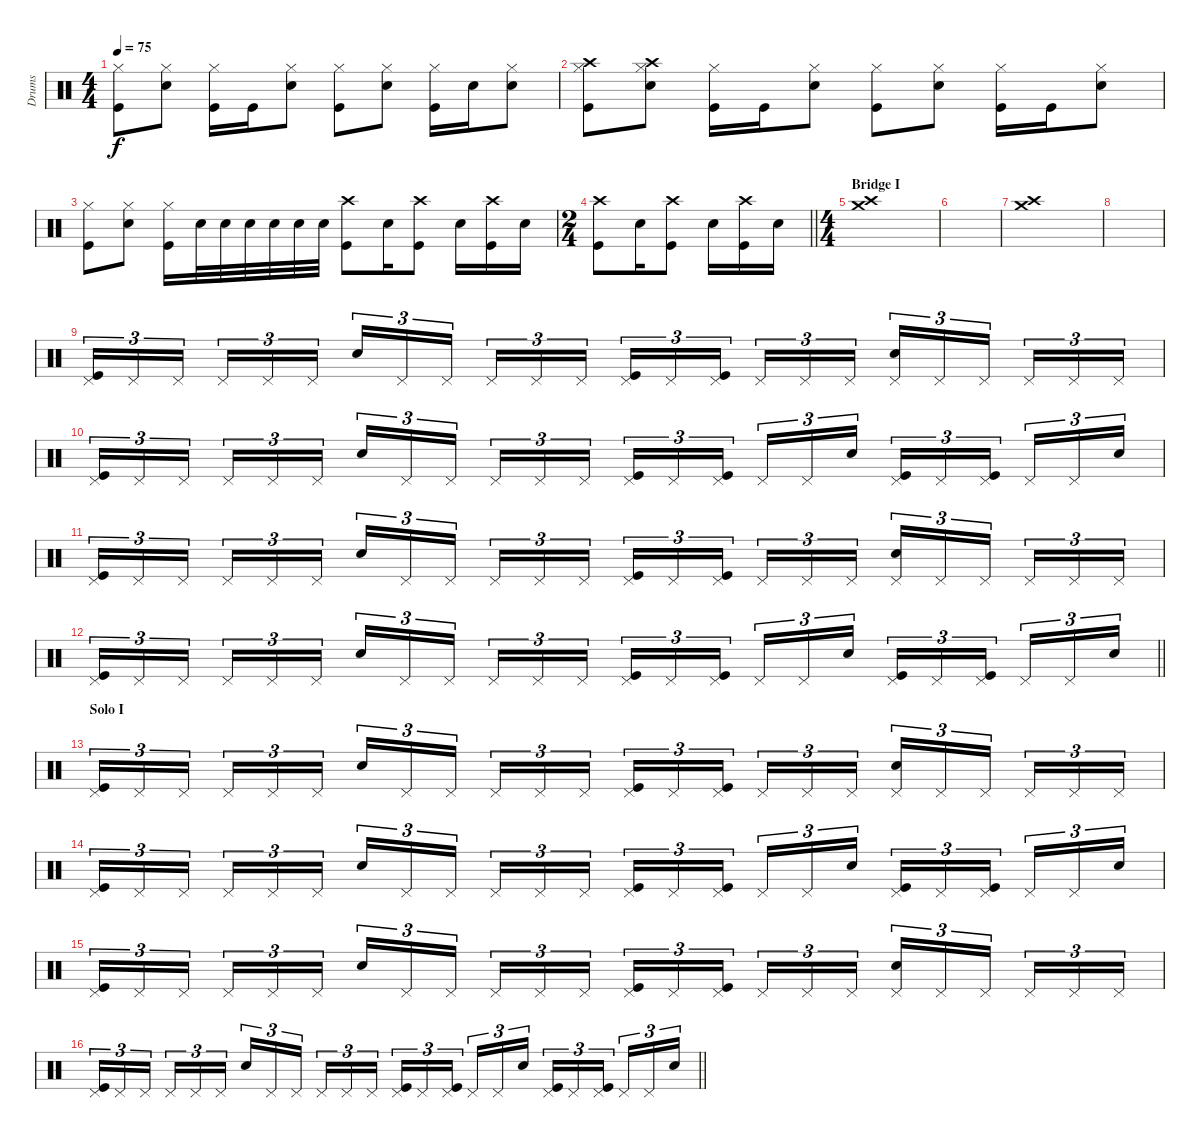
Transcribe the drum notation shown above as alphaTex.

\track ("Drums" "Drums") {instrument percussion}
\staff {score}
\articulation defaults
\ts (4 4)
\tempo 75
\clef neutral
\ks c
("Hi-Hat (closed)" "Kick (hit)").8{dy f} ("Hi-Hat (closed)" "Snare (hit) 2").8 ("Hi-Hat (closed)" "Kick (hit)").16 "Kick (hit)".16 ("Hi-Hat (closed)" "Snare (hit) 2").8 ("Hi-Hat (closed)" "Kick (hit)").8 ("Hi-Hat (closed)" "Snare (hit) 2").8 ("Hi-Hat (closed)" "Kick (hit)").16 "Snare (hit) 2".16 ("Hi-Hat (closed)" "Snare (hit) 2").8 |
("Crash high (hit)" "Hi-Hat (closed)" "Kick (hit)").8 ("Crash high (hit)" "Hi-Hat (closed)" "Snare (hit) 2").8 ("Hi-Hat (closed)" "Kick (hit)").16 "Kick (hit)".16 ("Hi-Hat (closed)" "Snare (hit) 2").8 ("Hi-Hat (closed)" "Kick (hit)").8 ("Hi-Hat (closed)" "Snare (hit) 2").8 ("Hi-Hat (closed)" "Kick (hit)").16 "Kick (hit)".16 ("Hi-Hat (closed)" "Snare (hit) 2").8 |
("Hi-Hat (closed)" "Kick (hit)").8 ("Hi-Hat (closed)" "Snare (hit) 2").8 ("Hi-Hat (closed)" "Kick (hit)").16 "Snare (hit) 2".32 "Snare (hit) 2".32 "Snare (hit) 2".32 "Snare (hit) 2".32 "Snare (hit) 2".32 "Snare (hit) 2".32 ("Crash high (hit)" "Kick (hit)").8 "Snare (hit) 2".16 ("Crash high (hit)" "Kick (hit)").8 "Snare (hit) 2".16 ("Crash high (hit)" "Kick (hit)").16 "Snare (hit) 2".16 |
\ts (2 4)
\barLineRight lightlight
("Crash high (hit)" "Kick (hit)").8 "Snare (hit) 2".16 ("Crash high (hit)" "Kick (hit)").8 "Snare (hit) 2".16 ("Crash high (hit)" "Kick (hit)").16 "Snare (hit) 2".16 |
\ts (4 4)
\section ("" "Bridge I")
("Crash high (hit)" "Crash medium (hit)").1 |
|
("Crash high (hit)" "Crash medium (hit)").1 |
|
("Pedal Hi-Hat (hit)" "Kick (hit)").16{tu (3 2)} "Pedal Hi-Hat (hit)".16{tu (3 2)} "Pedal Hi-Hat (hit)".16{tu (3 2) beam splitsecondary} "Pedal Hi-Hat (hit)".16{tu (3 2)} "Pedal Hi-Hat (hit)".16{tu (3 2)} "Pedal Hi-Hat (hit)".16{tu (3 2)} "Snare (hit) 2".16{tu (3 2)} "Pedal Hi-Hat (hit)".16{tu (3 2)} "Pedal Hi-Hat (hit)".16{tu (3 2) beam splitsecondary} "Pedal Hi-Hat (hit)".16{tu (3 2)} "Pedal Hi-Hat (hit)".16{tu (3 2)} "Pedal Hi-Hat (hit)".16{tu (3 2)} ("Pedal Hi-Hat (hit)" "Kick (hit)").16{tu (3 2)} "Pedal Hi-Hat (hit)".16{tu (3 2)} ("Pedal Hi-Hat (hit)" "Kick (hit)").16{tu (3 2) beam splitsecondary} "Pedal Hi-Hat (hit)".16{tu (3 2)} "Pedal Hi-Hat (hit)".16{tu (3 2)} "Pedal Hi-Hat (hit)".16{tu (3 2)} ("Pedal Hi-Hat (hit)" "Snare (hit) 2").16{tu (3 2)} "Pedal Hi-Hat (hit)".16{tu (3 2)} "Pedal Hi-Hat (hit)".16{tu (3 2) beam splitsecondary} "Pedal Hi-Hat (hit)".16{tu (3 2)} "Pedal Hi-Hat (hit)".16{tu (3 2)} "Pedal Hi-Hat (hit)".16{tu (3 2)} |
("Pedal Hi-Hat (hit)" "Kick (hit)").16{tu (3 2)} "Pedal Hi-Hat (hit)".16{tu (3 2)} "Pedal Hi-Hat (hit)".16{tu (3 2) beam splitsecondary} "Pedal Hi-Hat (hit)".16{tu (3 2)} "Pedal Hi-Hat (hit)".16{tu (3 2)} "Pedal Hi-Hat (hit)".16{tu (3 2)} "Snare (hit) 2".16{tu (3 2)} "Pedal Hi-Hat (hit)".16{tu (3 2)} "Pedal Hi-Hat (hit)".16{tu (3 2) beam splitsecondary} "Pedal Hi-Hat (hit)".16{tu (3 2)} "Pedal Hi-Hat (hit)".16{tu (3 2)} "Pedal Hi-Hat (hit)".16{tu (3 2)} ("Pedal Hi-Hat (hit)" "Kick (hit)").16{tu (3 2)} "Pedal Hi-Hat (hit)".16{tu (3 2)} ("Pedal Hi-Hat (hit)" "Kick (hit)").16{tu (3 2) beam splitsecondary} "Pedal Hi-Hat (hit)".16{tu (3 2)} "Pedal Hi-Hat (hit)".16{tu (3 2)} "Snare (hit) 2".16{tu (3 2)} ("Pedal Hi-Hat (hit)" "Kick (hit)").16{tu (3 2)} "Pedal Hi-Hat (hit)".16{tu (3 2)} ("Pedal Hi-Hat (hit)" "Kick (hit)").16{tu (3 2) beam splitsecondary} "Pedal Hi-Hat (hit)".16{tu (3 2)} "Pedal Hi-Hat (hit)".16{tu (3 2)} "Snare (hit) 2".16{tu (3 2)} |
("Pedal Hi-Hat (hit)" "Kick (hit)").16{tu (3 2)} "Pedal Hi-Hat (hit)".16{tu (3 2)} "Pedal Hi-Hat (hit)".16{tu (3 2) beam splitsecondary} "Pedal Hi-Hat (hit)".16{tu (3 2)} "Pedal Hi-Hat (hit)".16{tu (3 2)} "Pedal Hi-Hat (hit)".16{tu (3 2)} "Snare (hit) 2".16{tu (3 2)} "Pedal Hi-Hat (hit)".16{tu (3 2)} "Pedal Hi-Hat (hit)".16{tu (3 2) beam splitsecondary} "Pedal Hi-Hat (hit)".16{tu (3 2)} "Pedal Hi-Hat (hit)".16{tu (3 2)} "Pedal Hi-Hat (hit)".16{tu (3 2)} ("Pedal Hi-Hat (hit)" "Kick (hit)").16{tu (3 2)} "Pedal Hi-Hat (hit)".16{tu (3 2)} ("Pedal Hi-Hat (hit)" "Kick (hit)").16{tu (3 2) beam splitsecondary} "Pedal Hi-Hat (hit)".16{tu (3 2)} "Pedal Hi-Hat (hit)".16{tu (3 2)} "Pedal Hi-Hat (hit)".16{tu (3 2)} ("Pedal Hi-Hat (hit)" "Snare (hit) 2").16{tu (3 2)} "Pedal Hi-Hat (hit)".16{tu (3 2)} "Pedal Hi-Hat (hit)".16{tu (3 2) beam splitsecondary} "Pedal Hi-Hat (hit)".16{tu (3 2)} "Pedal Hi-Hat (hit)".16{tu (3 2)} "Pedal Hi-Hat (hit)".16{tu (3 2)} |
\barLineRight lightlight
("Pedal Hi-Hat (hit)" "Kick (hit)").16{tu (3 2)} "Pedal Hi-Hat (hit)".16{tu (3 2)} "Pedal Hi-Hat (hit)".16{tu (3 2) beam splitsecondary} "Pedal Hi-Hat (hit)".16{tu (3 2)} "Pedal Hi-Hat (hit)".16{tu (3 2)} "Pedal Hi-Hat (hit)".16{tu (3 2)} "Snare (hit) 2".16{tu (3 2)} "Pedal Hi-Hat (hit)".16{tu (3 2)} "Pedal Hi-Hat (hit)".16{tu (3 2) beam splitsecondary} "Pedal Hi-Hat (hit)".16{tu (3 2)} "Pedal Hi-Hat (hit)".16{tu (3 2)} "Pedal Hi-Hat (hit)".16{tu (3 2)} ("Pedal Hi-Hat (hit)" "Kick (hit)").16{tu (3 2)} "Pedal Hi-Hat (hit)".16{tu (3 2)} ("Pedal Hi-Hat (hit)" "Kick (hit)").16{tu (3 2) beam splitsecondary} "Pedal Hi-Hat (hit)".16{tu (3 2)} "Pedal Hi-Hat (hit)".16{tu (3 2)} "Snare (hit) 2".16{tu (3 2)} ("Pedal Hi-Hat (hit)" "Kick (hit)").16{tu (3 2)} "Pedal Hi-Hat (hit)".16{tu (3 2)} ("Pedal Hi-Hat (hit)" "Kick (hit)").16{tu (3 2) beam splitsecondary} "Pedal Hi-Hat (hit)".16{tu (3 2)} "Pedal Hi-Hat (hit)".16{tu (3 2)} "Snare (hit) 2".16{tu (3 2)} |
\section ("" "Solo I")
("Pedal Hi-Hat (hit)" "Kick (hit)").16{tu (3 2)} "Pedal Hi-Hat (hit)".16{tu (3 2)} "Pedal Hi-Hat (hit)".16{tu (3 2) beam splitsecondary} "Pedal Hi-Hat (hit)".16{tu (3 2)} "Pedal Hi-Hat (hit)".16{tu (3 2)} "Pedal Hi-Hat (hit)".16{tu (3 2)} "Snare (hit) 2".16{tu (3 2)} "Pedal Hi-Hat (hit)".16{tu (3 2)} "Pedal Hi-Hat (hit)".16{tu (3 2) beam splitsecondary} "Pedal Hi-Hat (hit)".16{tu (3 2)} "Pedal Hi-Hat (hit)".16{tu (3 2)} "Pedal Hi-Hat (hit)".16{tu (3 2)} ("Pedal Hi-Hat (hit)" "Kick (hit)").16{tu (3 2)} "Pedal Hi-Hat (hit)".16{tu (3 2)} ("Pedal Hi-Hat (hit)" "Kick (hit)").16{tu (3 2) beam splitsecondary} "Pedal Hi-Hat (hit)".16{tu (3 2)} "Pedal Hi-Hat (hit)".16{tu (3 2)} "Pedal Hi-Hat (hit)".16{tu (3 2)} ("Pedal Hi-Hat (hit)" "Snare (hit) 2").16{tu (3 2)} "Pedal Hi-Hat (hit)".16{tu (3 2)} "Pedal Hi-Hat (hit)".16{tu (3 2) beam splitsecondary} "Pedal Hi-Hat (hit)".16{tu (3 2)} "Pedal Hi-Hat (hit)".16{tu (3 2)} "Pedal Hi-Hat (hit)".16{tu (3 2)} |
("Pedal Hi-Hat (hit)" "Kick (hit)").16{tu (3 2)} "Pedal Hi-Hat (hit)".16{tu (3 2)} "Pedal Hi-Hat (hit)".16{tu (3 2) beam splitsecondary} "Pedal Hi-Hat (hit)".16{tu (3 2)} "Pedal Hi-Hat (hit)".16{tu (3 2)} "Pedal Hi-Hat (hit)".16{tu (3 2)} "Snare (hit) 2".16{tu (3 2)} "Pedal Hi-Hat (hit)".16{tu (3 2)} "Pedal Hi-Hat (hit)".16{tu (3 2) beam splitsecondary} "Pedal Hi-Hat (hit)".16{tu (3 2)} "Pedal Hi-Hat (hit)".16{tu (3 2)} "Pedal Hi-Hat (hit)".16{tu (3 2)} ("Pedal Hi-Hat (hit)" "Kick (hit)").16{tu (3 2)} "Pedal Hi-Hat (hit)".16{tu (3 2)} ("Pedal Hi-Hat (hit)" "Kick (hit)").16{tu (3 2) beam splitsecondary} "Pedal Hi-Hat (hit)".16{tu (3 2)} "Pedal Hi-Hat (hit)".16{tu (3 2)} "Snare (hit) 2".16{tu (3 2)} ("Pedal Hi-Hat (hit)" "Kick (hit)").16{tu (3 2)} "Pedal Hi-Hat (hit)".16{tu (3 2)} ("Pedal Hi-Hat (hit)" "Kick (hit)").16{tu (3 2) beam splitsecondary} "Pedal Hi-Hat (hit)".16{tu (3 2)} "Pedal Hi-Hat (hit)".16{tu (3 2)} "Snare (hit) 2".16{tu (3 2)} |
("Pedal Hi-Hat (hit)" "Kick (hit)").16{tu (3 2)} "Pedal Hi-Hat (hit)".16{tu (3 2)} "Pedal Hi-Hat (hit)".16{tu (3 2) beam splitsecondary} "Pedal Hi-Hat (hit)".16{tu (3 2)} "Pedal Hi-Hat (hit)".16{tu (3 2)} "Pedal Hi-Hat (hit)".16{tu (3 2)} "Snare (hit) 2".16{tu (3 2)} "Pedal Hi-Hat (hit)".16{tu (3 2)} "Pedal Hi-Hat (hit)".16{tu (3 2) beam splitsecondary} "Pedal Hi-Hat (hit)".16{tu (3 2)} "Pedal Hi-Hat (hit)".16{tu (3 2)} "Pedal Hi-Hat (hit)".16{tu (3 2)} ("Pedal Hi-Hat (hit)" "Kick (hit)").16{tu (3 2)} "Pedal Hi-Hat (hit)".16{tu (3 2)} ("Pedal Hi-Hat (hit)" "Kick (hit)").16{tu (3 2) beam splitsecondary} "Pedal Hi-Hat (hit)".16{tu (3 2)} "Pedal Hi-Hat (hit)".16{tu (3 2)} "Pedal Hi-Hat (hit)".16{tu (3 2)} ("Pedal Hi-Hat (hit)" "Snare (hit) 2").16{tu (3 2)} "Pedal Hi-Hat (hit)".16{tu (3 2)} "Pedal Hi-Hat (hit)".16{tu (3 2) beam splitsecondary} "Pedal Hi-Hat (hit)".16{tu (3 2)} "Pedal Hi-Hat (hit)".16{tu (3 2)} "Pedal Hi-Hat (hit)".16{tu (3 2)} |
\barLineRight lightlight
("Pedal Hi-Hat (hit)" "Kick (hit)").16{tu (3 2)} "Pedal Hi-Hat (hit)".16{tu (3 2)} "Pedal Hi-Hat (hit)".16{tu (3 2) beam splitsecondary} "Pedal Hi-Hat (hit)".16{tu (3 2)} "Pedal Hi-Hat (hit)".16{tu (3 2)} "Pedal Hi-Hat (hit)".16{tu (3 2)} "Snare (hit) 2".16{tu (3 2)} "Pedal Hi-Hat (hit)".16{tu (3 2)} "Pedal Hi-Hat (hit)".16{tu (3 2) beam splitsecondary} "Pedal Hi-Hat (hit)".16{tu (3 2)} "Pedal Hi-Hat (hit)".16{tu (3 2)} "Pedal Hi-Hat (hit)".16{tu (3 2)} ("Pedal Hi-Hat (hit)" "Kick (hit)").16{tu (3 2)} "Pedal Hi-Hat (hit)".16{tu (3 2)} ("Pedal Hi-Hat (hit)" "Kick (hit)").16{tu (3 2) beam splitsecondary} "Pedal Hi-Hat (hit)".16{tu (3 2)} "Pedal Hi-Hat (hit)".16{tu (3 2)} "Snare (hit) 2".16{tu (3 2)} ("Pedal Hi-Hat (hit)" "Kick (hit)").16{tu (3 2)} "Pedal Hi-Hat (hit)".16{tu (3 2)} ("Pedal Hi-Hat (hit)" "Kick (hit)").16{tu (3 2) beam splitsecondary} "Pedal Hi-Hat (hit)".16{tu (3 2)} "Pedal Hi-Hat (hit)".16{tu (3 2)} "Snare (hit) 2".16{tu (3 2)}
